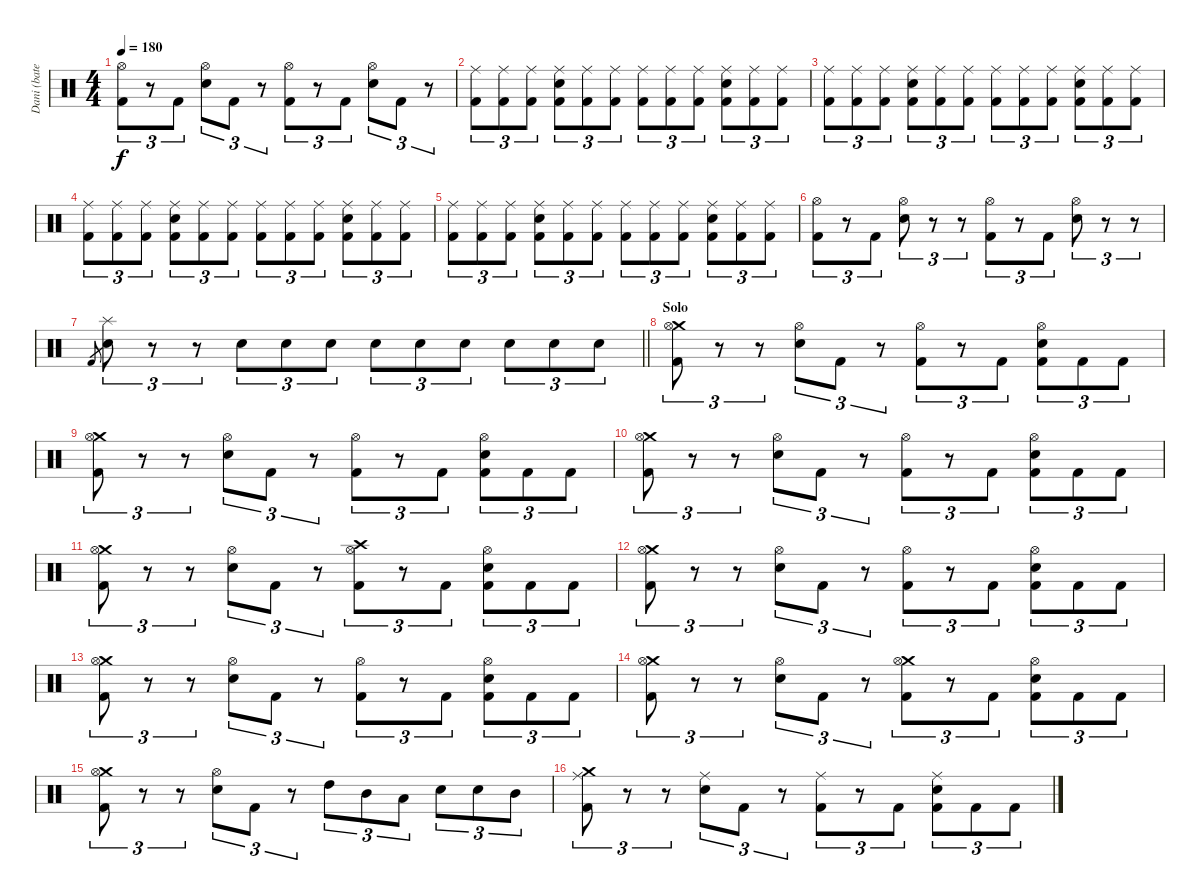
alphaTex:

\track ("Dani (bateria)" "Dani (bate") {instrument percussion}
\staff {score}
\articulation defaults
\ts (4 4)
\tempo 180
\clef neutral
\ks c
("Hi-Hat (open)" "Kick (hit) 2").8{tu (3 2) dy f} r.8{tu (3 2)} "Kick (hit) 2".8{tu (3 2)} ("Hi-Hat (open)" "Electric Snare (hit)").8{tu (3 2)} "Kick (hit) 2".8{tu (3 2)} r.8{tu (3 2)} ("Hi-Hat (open)" "Kick (hit) 2").8{tu (3 2)} r.8{tu (3 2)} "Kick (hit) 2".8{tu (3 2)} ("Hi-Hat (open)" "Electric Snare (hit)").8{tu (3 2)} "Kick (hit) 2".8{tu (3 2)} r.8{tu (3 2)} |
("Ride (middle)" "Kick (hit) 2").8{tu (3 2)} ("Ride (middle)" "Kick (hit) 2").8{tu (3 2)} ("Ride (middle)" "Kick (hit) 2").8{tu (3 2)} ("Ride (middle)" "Electric Snare (hit)" "Kick (hit) 2").8{tu (3 2)} ("Ride (middle)" "Kick (hit) 2").8{tu (3 2)} ("Ride (middle)" "Kick (hit) 2").8{tu (3 2)} ("Ride (middle)" "Kick (hit) 2").8{tu (3 2)} ("Ride (middle)" "Kick (hit) 2").8{tu (3 2)} ("Ride (middle)" "Kick (hit) 2").8{tu (3 2)} ("Ride (middle)" "Electric Snare (hit)" "Kick (hit) 2").8{tu (3 2)} ("Ride (middle)" "Kick (hit) 2").8{tu (3 2)} ("Ride (middle)" "Kick (hit) 2").8{tu (3 2)} |
("Ride (middle)" "Kick (hit) 2").8{tu (3 2)} ("Ride (middle)" "Kick (hit) 2").8{tu (3 2)} ("Ride (middle)" "Kick (hit) 2").8{tu (3 2)} ("Ride (middle)" "Electric Snare (hit)" "Kick (hit) 2").8{tu (3 2)} ("Ride (middle)" "Kick (hit) 2").8{tu (3 2)} ("Ride (middle)" "Kick (hit) 2").8{tu (3 2)} ("Ride (middle)" "Kick (hit) 2").8{tu (3 2)} ("Ride (middle)" "Kick (hit) 2").8{tu (3 2)} ("Ride (middle)" "Kick (hit) 2").8{tu (3 2)} ("Ride (middle)" "Electric Snare (hit)" "Kick (hit) 2").8{tu (3 2)} ("Ride (middle)" "Kick (hit) 2").8{tu (3 2)} ("Ride (middle)" "Kick (hit) 2").8{tu (3 2)} |
("Ride (middle)" "Kick (hit) 2").8{tu (3 2)} ("Ride (middle)" "Kick (hit) 2").8{tu (3 2)} ("Ride (middle)" "Kick (hit) 2").8{tu (3 2)} ("Ride (middle)" "Electric Snare (hit)" "Kick (hit) 2").8{tu (3 2)} ("Ride (middle)" "Kick (hit) 2").8{tu (3 2)} ("Ride (middle)" "Kick (hit) 2").8{tu (3 2)} ("Ride (middle)" "Kick (hit) 2").8{tu (3 2)} ("Ride (middle)" "Kick (hit) 2").8{tu (3 2)} ("Ride (middle)" "Kick (hit) 2").8{tu (3 2)} ("Ride (middle)" "Electric Snare (hit)" "Kick (hit) 2").8{tu (3 2)} ("Ride (middle)" "Kick (hit) 2").8{tu (3 2)} ("Ride (middle)" "Kick (hit) 2").8{tu (3 2)} |
("Ride (middle)" "Kick (hit) 2").8{tu (3 2)} ("Ride (middle)" "Kick (hit) 2").8{tu (3 2)} ("Ride (middle)" "Kick (hit) 2").8{tu (3 2)} ("Ride (middle)" "Electric Snare (hit)" "Kick (hit) 2").8{tu (3 2)} ("Ride (middle)" "Kick (hit) 2").8{tu (3 2)} ("Ride (middle)" "Kick (hit) 2").8{tu (3 2)} ("Ride (middle)" "Kick (hit) 2").8{tu (3 2)} ("Ride (middle)" "Kick (hit) 2").8{tu (3 2)} ("Ride (middle)" "Kick (hit) 2").8{tu (3 2)} ("Ride (middle)" "Electric Snare (hit)" "Kick (hit) 2").8{tu (3 2)} ("Ride (middle)" "Kick (hit) 2").8{tu (3 2)} ("Ride (middle)" "Kick (hit) 2").8{tu (3 2)} |
("Hi-Hat (open)" "Kick (hit) 2").8{tu (3 2)} r.8{tu (3 2)} "Kick (hit) 2".8{tu (3 2)} ("Hi-Hat (open)" "Electric Snare (hit)").8{tu (3 2)} r.8{tu (3 2)} r.8{tu (3 2)} ("Hi-Hat (open)" "Kick (hit) 2").8{tu (3 2)} r.8{tu (3 2)} "Kick (hit) 2".8{tu (3 2)} ("Hi-Hat (open)" "Electric Snare (hit)").8{tu (3 2)} r.8{tu (3 2)} r.8{tu (3 2)} |
\barLineRight lightlight "Kick (hit) 2".8{gr}
("Splash (hit)" "Electric Snare (hit)").8{tu (3 2)} r.8{tu (3 2)} r.8{tu (3 2)} "Electric Snare (hit)".8{tu (3 2)} "Electric Snare (hit)".8{tu (3 2)} "Electric Snare (hit)".8{tu (3 2)} "Electric Snare (hit)".8{tu (3 2)} "Electric Snare (hit)".8{tu (3 2)} "Electric Snare (hit)".8{tu (3 2)} "Electric Snare (hit)".8{tu (3 2)} "Electric Snare (hit)".8{tu (3 2)} "Electric Snare (hit)".8{tu (3 2)} |
\section ("" "Solo")
("Crash medium (hit)" "Hi-Hat (open)" "Kick (hit) 2").8{tu (3 2)} r.8{tu (3 2)} r.8{tu (3 2)} ("Hi-Hat (open)" "Electric Snare (hit)").8{tu (3 2)} "Kick (hit) 2".8{tu (3 2)} r.8{tu (3 2)} ("Hi-Hat (open)" "Kick (hit) 2").8{tu (3 2)} r.8{tu (3 2)} "Kick (hit) 2".8{tu (3 2)} ("Hi-Hat (open)" "Electric Snare (hit)" "Kick (hit) 2").8{tu (3 2)} "Kick (hit) 2".8{tu (3 2)} "Kick (hit) 2".8{tu (3 2)} |
("Crash medium (hit)" "Hi-Hat (open)" "Kick (hit) 2").8{tu (3 2)} r.8{tu (3 2)} r.8{tu (3 2)} ("Hi-Hat (open)" "Electric Snare (hit)").8{tu (3 2)} "Kick (hit) 2".8{tu (3 2)} r.8{tu (3 2)} ("Hi-Hat (open)" "Kick (hit) 2").8{tu (3 2)} r.8{tu (3 2)} "Kick (hit) 2".8{tu (3 2)} ("Hi-Hat (open)" "Electric Snare (hit)" "Kick (hit) 2").8{tu (3 2)} "Kick (hit) 2".8{tu (3 2)} "Kick (hit) 2".8{tu (3 2)} |
("Crash medium (hit)" "Hi-Hat (open)" "Kick (hit) 2").8{tu (3 2)} r.8{tu (3 2)} r.8{tu (3 2)} ("Hi-Hat (open)" "Electric Snare (hit)").8{tu (3 2)} "Kick (hit) 2".8{tu (3 2)} r.8{tu (3 2)} ("Hi-Hat (open)" "Kick (hit) 2").8{tu (3 2)} r.8{tu (3 2)} "Kick (hit) 2".8{tu (3 2)} ("Hi-Hat (open)" "Electric Snare (hit)" "Kick (hit) 2").8{tu (3 2)} "Kick (hit) 2".8{tu (3 2)} "Kick (hit) 2".8{tu (3 2)} |
("Crash medium (hit)" "Hi-Hat (open)" "Kick (hit) 2").8{tu (3 2)} r.8{tu (3 2)} r.8{tu (3 2)} ("Hi-Hat (open)" "Electric Snare (hit)").8{tu (3 2)} "Kick (hit) 2".8{tu (3 2)} r.8{tu (3 2)} ("Crash high (hit)" "Hi-Hat (open)" "Kick (hit) 2").8{tu (3 2)} r.8{tu (3 2)} "Kick (hit) 2".8{tu (3 2)} ("Hi-Hat (open)" "Electric Snare (hit)" "Kick (hit) 2").8{tu (3 2)} "Kick (hit) 2".8{tu (3 2)} "Kick (hit) 2".8{tu (3 2)} |
("Crash medium (hit)" "Hi-Hat (open)" "Kick (hit) 2").8{tu (3 2)} r.8{tu (3 2)} r.8{tu (3 2)} ("Hi-Hat (open)" "Electric Snare (hit)").8{tu (3 2)} "Kick (hit) 2".8{tu (3 2)} r.8{tu (3 2)} ("Hi-Hat (open)" "Kick (hit) 2").8{tu (3 2)} r.8{tu (3 2)} "Kick (hit) 2".8{tu (3 2)} ("Hi-Hat (open)" "Electric Snare (hit)" "Kick (hit) 2").8{tu (3 2)} "Kick (hit) 2".8{tu (3 2)} "Kick (hit) 2".8{tu (3 2)} |
("Crash medium (hit)" "Hi-Hat (open)" "Kick (hit) 2").8{tu (3 2)} r.8{tu (3 2)} r.8{tu (3 2)} ("Hi-Hat (open)" "Electric Snare (hit)").8{tu (3 2)} "Kick (hit) 2".8{tu (3 2)} r.8{tu (3 2)} ("Hi-Hat (open)" "Kick (hit) 2").8{tu (3 2)} r.8{tu (3 2)} "Kick (hit) 2".8{tu (3 2)} ("Hi-Hat (open)" "Electric Snare (hit)" "Kick (hit) 2").8{tu (3 2)} "Kick (hit) 2".8{tu (3 2)} "Kick (hit) 2".8{tu (3 2)} |
("Crash medium (hit)" "Hi-Hat (open)" "Kick (hit) 2").8{tu (3 2)} r.8{tu (3 2)} r.8{tu (3 2)} ("Hi-Hat (open)" "Electric Snare (hit)").8{tu (3 2)} "Kick (hit) 2".8{tu (3 2)} r.8{tu (3 2)} ("Crash medium (hit)" "Hi-Hat (open)" "Kick (hit) 2").8{tu (3 2)} r.8{tu (3 2)} "Kick (hit) 2".8{tu (3 2)} ("Hi-Hat (open)" "Electric Snare (hit)" "Kick (hit) 2").8{tu (3 2)} "Kick (hit) 2".8{tu (3 2)} "Kick (hit) 2".8{tu (3 2)} |
("Crash medium (hit)" "Hi-Hat (open)" "Kick (hit) 2").8{tu (3 2)} r.8{tu (3 2)} r.8{tu (3 2)} ("Hi-Hat (open)" "Electric Snare (hit)").8{tu (3 2)} "Kick (hit) 2".8{tu (3 2)} r.8{tu (3 2)} "High Tom (hit)".8{tu (3 2)} "Mid Tom (hit)".8{tu (3 2)} "Low Tom (hit)".8{tu (3 2)} "Electric Snare (hit)".8{tu (3 2)} "Electric Snare (hit)".8{tu (3 2)} "Mid Tom (hit)".8{tu (3 2)} |
("Crash medium (hit)" "Ride (middle)" "Kick (hit) 2").8{tu (3 2)} r.8{tu (3 2)} r.8{tu (3 2)} ("Ride (middle)" "Electric Snare (hit)").8{tu (3 2)} "Kick (hit) 2".8{tu (3 2)} r.8{tu (3 2)} ("Ride (middle)" "Kick (hit) 2").8{tu (3 2)} r.8{tu (3 2)} "Kick (hit) 2".8{tu (3 2)} ("Ride (middle)" "Electric Snare (hit)" "Kick (hit) 2").8{tu (3 2)} "Kick (hit) 2".8{tu (3 2)} "Kick (hit) 2".8{tu (3 2)}
